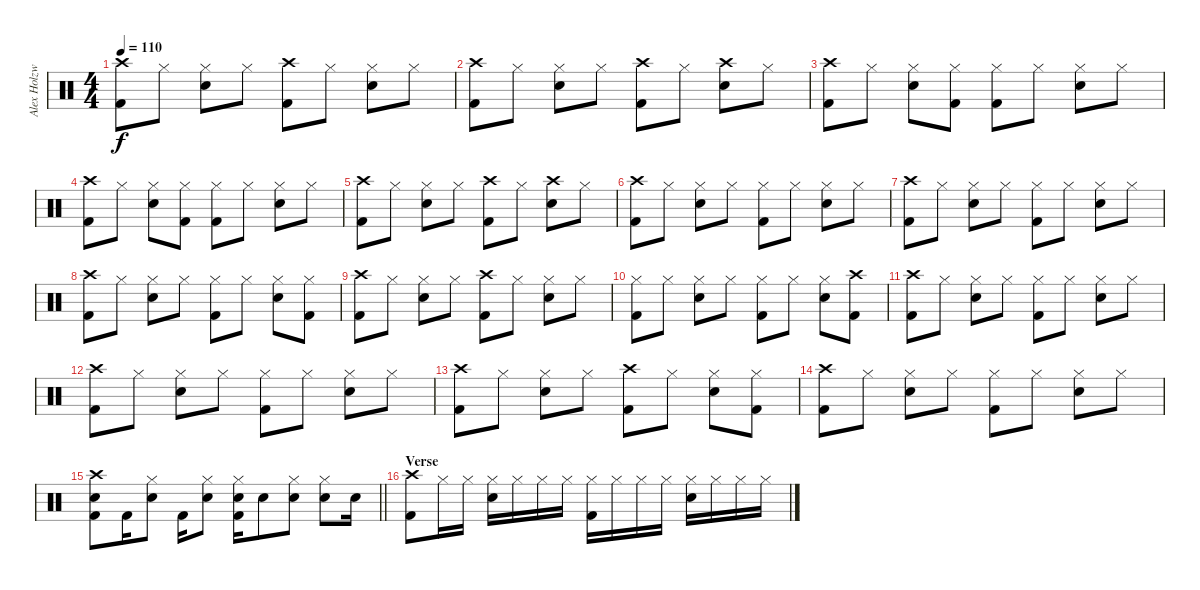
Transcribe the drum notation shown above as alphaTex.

\track ("Alex Holzwarth (Drums)" "Alex Holzw") {instrument percussion}
\staff {score}
\articulation defaults
\ts (4 4)
\tempo 110
\clef neutral
\ks c
("Crash high (hit)" "Kick (hit) 2").8{dy f} "Hi-Hat (closed)".8 ("Hi-Hat (closed)" "Electric Snare (hit)").8 "Hi-Hat (closed)".8 ("Crash high (hit)" "Kick (hit) 2").8 "Hi-Hat (closed)".8 ("Hi-Hat (closed)" "Electric Snare (hit)").8 "Hi-Hat (closed)".8 |
("Crash high (hit)" "Kick (hit) 2").8 "Hi-Hat (closed)".8 ("Hi-Hat (closed)" "Electric Snare (hit)").8 "Hi-Hat (closed)".8 ("Crash high (hit)" "Kick (hit) 2").8 "Hi-Hat (closed)".8 ("Crash high (hit)" "Electric Snare (hit)").8 "Hi-Hat (closed)".8 |
("Crash high (hit)" "Kick (hit) 2").8 "Hi-Hat (closed)".8 ("Hi-Hat (closed)" "Electric Snare (hit)").8 ("Hi-Hat (closed)" "Kick (hit) 2").8 ("Hi-Hat (closed)" "Kick (hit) 2").8 "Hi-Hat (closed)".8 ("Hi-Hat (closed)" "Electric Snare (hit)").8 "Hi-Hat (closed)".8 |
("Crash high (hit)" "Kick (hit) 2").8 "Hi-Hat (closed)".8 ("Hi-Hat (closed)" "Electric Snare (hit)").8 ("Hi-Hat (closed)" "Kick (hit) 2").8 ("Hi-Hat (closed)" "Kick (hit) 2").8 "Hi-Hat (closed)".8 ("Hi-Hat (closed)" "Electric Snare (hit)").8 "Hi-Hat (closed)".8 |
("Crash high (hit)" "Kick (hit) 2").8 "Hi-Hat (closed)".8 ("Hi-Hat (closed)" "Electric Snare (hit)").8 "Hi-Hat (closed)".8 ("Crash high (hit)" "Kick (hit) 2").8 "Hi-Hat (closed)".8 ("Crash high (hit)" "Electric Snare (hit)").8 "Hi-Hat (closed)".8 |
("Crash high (hit)" "Kick (hit) 2").8 "Hi-Hat (closed)".8 ("Hi-Hat (closed)" "Electric Snare (hit)").8 "Hi-Hat (closed)".8 ("Hi-Hat (closed)" "Kick (hit) 2").8 "Hi-Hat (closed)".8 ("Hi-Hat (closed)" "Electric Snare (hit)").8 "Hi-Hat (closed)".8 |
("Crash high (hit)" "Kick (hit) 2").8 "Hi-Hat (closed)".8 ("Hi-Hat (closed)" "Electric Snare (hit)").8 "Hi-Hat (closed)".8 ("Hi-Hat (closed)" "Kick (hit) 2").8 "Hi-Hat (closed)".8 ("Hi-Hat (closed)" "Electric Snare (hit)").8 "Hi-Hat (closed)".8 |
("Crash high (hit)" "Kick (hit) 2").8 "Hi-Hat (closed)".8 ("Hi-Hat (closed)" "Electric Snare (hit)").8 "Hi-Hat (closed)".8 ("Hi-Hat (closed)" "Kick (hit) 2").8 "Hi-Hat (closed)".8 ("Hi-Hat (closed)" "Electric Snare (hit)").8 ("Hi-Hat (closed)" "Kick (hit) 2").8 |
("Crash high (hit)" "Kick (hit) 2").8 "Hi-Hat (closed)".8 ("Hi-Hat (closed)" "Electric Snare (hit)").8 "Hi-Hat (closed)".8 ("Crash high (hit)" "Kick (hit) 2").8 "Hi-Hat (closed)".8 ("Hi-Hat (closed)" "Electric Snare (hit)").8 "Hi-Hat (closed)".8 |
("Hi-Hat (closed)" "Kick (hit) 2").8 "Hi-Hat (closed)".8 ("Hi-Hat (closed)" "Electric Snare (hit)").8 "Hi-Hat (closed)".8 ("Hi-Hat (closed)" "Kick (hit) 2").8 "Hi-Hat (closed)".8 ("Hi-Hat (closed)" "Electric Snare (hit)").8 ("Crash high (hit)" "Kick (hit) 2").8 |
("Crash high (hit)" "Kick (hit) 2").8 "Hi-Hat (closed)".8 ("Hi-Hat (closed)" "Electric Snare (hit)").8 "Hi-Hat (closed)".8 ("Hi-Hat (closed)" "Kick (hit) 2").8 "Hi-Hat (closed)".8 ("Hi-Hat (closed)" "Electric Snare (hit)").8 "Hi-Hat (closed)".8 |
("Crash high (hit)" "Kick (hit) 2").8 "Hi-Hat (closed)".8 ("Hi-Hat (closed)" "Electric Snare (hit)").8 "Hi-Hat (closed)".8 ("Hi-Hat (closed)" "Kick (hit) 2").8 "Hi-Hat (closed)".8 ("Hi-Hat (closed)" "Electric Snare (hit)").8 "Hi-Hat (closed)".8 |
("Crash high (hit)" "Kick (hit) 2").8 "Hi-Hat (closed)".8 ("Hi-Hat (closed)" "Electric Snare (hit)").8 "Hi-Hat (closed)".8 ("Crash high (hit)" "Kick (hit) 2").8 "Hi-Hat (closed)".8 ("Hi-Hat (closed)" "Electric Snare (hit)").8 ("Hi-Hat (closed)" "Kick (hit) 2").8 |
("Crash high (hit)" "Kick (hit) 2").8 "Hi-Hat (closed)".8 ("Hi-Hat (closed)" "Electric Snare (hit)").8 "Hi-Hat (closed)".8 ("Hi-Hat (closed)" "Kick (hit) 2").8 "Hi-Hat (closed)".8 ("Hi-Hat (closed)" "Electric Snare (hit)").8 "Hi-Hat (closed)".8 |
\barLineRight lightlight
("Crash high (hit)" "Electric Snare (hit)" "Kick (hit) 2").8 "Kick (hit) 2".16 ("Hi-Hat (closed)" "Electric Snare (hit)").8 "Kick (hit) 2".16 ("Hi-Hat (closed)" "Electric Snare (hit)").8 ("Hi-Hat (closed)" "Electric Snare (hit)" "Kick (hit) 2").16 "Electric Snare (hit)".8 ("Hi-Hat (closed)" "Electric Snare (hit)").8 ("Hi-Hat (closed)" "Electric Snare (hit)").8 "Electric Snare (hit)".16 |
\section ("" "Verse")
("Crash high (hit)" "Kick (hit) 2").8 "Hi-Hat (closed)".16 "Hi-Hat (closed)".16 ("Hi-Hat (closed)" "Electric Snare (hit)").16 "Hi-Hat (closed)".16 "Hi-Hat (closed)".16 "Hi-Hat (closed)".16 ("Hi-Hat (closed)" "Kick (hit) 2").16 "Hi-Hat (closed)".16 "Hi-Hat (closed)".16 "Hi-Hat (closed)".16 ("Hi-Hat (closed)" "Electric Snare (hit)").16 "Hi-Hat (closed)".16 "Hi-Hat (closed)".16 "Hi-Hat (closed)".16
